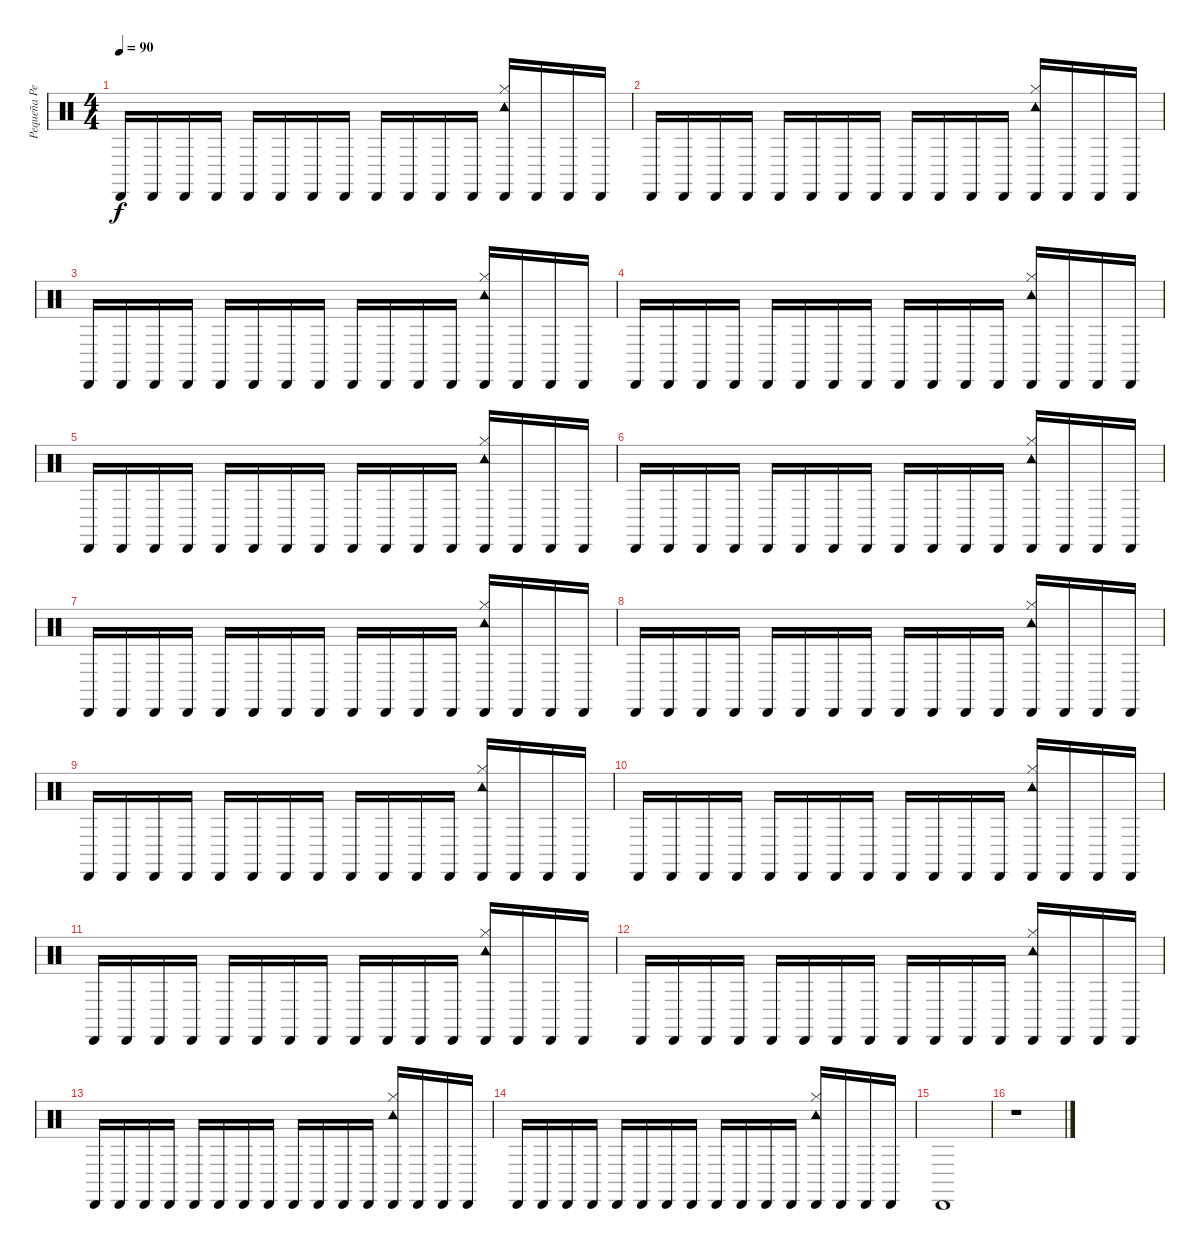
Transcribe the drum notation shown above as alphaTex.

\track ("Pequeña Percusión" "Pequeña Pe") {instrument percussion}
\staff {score}
\articulation defaults
\ts (4 4)
\tempo 90
\clef neutral
\ks c "Cabasa (hit)".16{dy f} "Cabasa (hit)".16 "Cabasa (hit)".16 "Cabasa (hit)".16 "Cabasa (hit)".16 "Cabasa (hit)".16 "Cabasa (hit)".16 "Cabasa (hit)".16 "Cabasa (hit)".16 "Cabasa (hit)".16 "Cabasa (hit)".16 "Cabasa (hit)".16
("Cabasa (hit)" "Tambourine (hit)" "Hi-Hat (closed)").16 "Cabasa (hit)".16 "Cabasa (hit)".16 "Cabasa (hit)".16 |
"Cabasa (hit)".16 "Cabasa (hit)".16 "Cabasa (hit)".16 "Cabasa (hit)".16 "Cabasa (hit)".16 "Cabasa (hit)".16 "Cabasa (hit)".16 "Cabasa (hit)".16 "Cabasa (hit)".16 "Cabasa (hit)".16 "Cabasa (hit)".16 "Cabasa (hit)".16 ("Cabasa (hit)" "Tambourine (hit)" "Hi-Hat (closed)").16 "Cabasa (hit)".16 "Cabasa (hit)".16 "Cabasa (hit)".16 |
"Cabasa (hit)".16 "Cabasa (hit)".16 "Cabasa (hit)".16 "Cabasa (hit)".16 "Cabasa (hit)".16 "Cabasa (hit)".16 "Cabasa (hit)".16 "Cabasa (hit)".16 "Cabasa (hit)".16 "Cabasa (hit)".16 "Cabasa (hit)".16 "Cabasa (hit)".16 ("Cabasa (hit)" "Tambourine (hit)" "Hi-Hat (closed)").16 "Cabasa (hit)".16 "Cabasa (hit)".16 "Cabasa (hit)".16 |
"Cabasa (hit)".16 "Cabasa (hit)".16 "Cabasa (hit)".16 "Cabasa (hit)".16 "Cabasa (hit)".16 "Cabasa (hit)".16 "Cabasa (hit)".16 "Cabasa (hit)".16 "Cabasa (hit)".16 "Cabasa (hit)".16 "Cabasa (hit)".16 "Cabasa (hit)".16 ("Cabasa (hit)" "Tambourine (hit)" "Hi-Hat (closed)").16 "Cabasa (hit)".16 "Cabasa (hit)".16 "Cabasa (hit)".16 |
"Cabasa (hit)".16 "Cabasa (hit)".16 "Cabasa (hit)".16 "Cabasa (hit)".16 "Cabasa (hit)".16 "Cabasa (hit)".16 "Cabasa (hit)".16 "Cabasa (hit)".16 "Cabasa (hit)".16 "Cabasa (hit)".16 "Cabasa (hit)".16 "Cabasa (hit)".16 ("Cabasa (hit)" "Tambourine (hit)" "Hi-Hat (closed)").16 "Cabasa (hit)".16 "Cabasa (hit)".16 "Cabasa (hit)".16 |
"Cabasa (hit)".16 "Cabasa (hit)".16 "Cabasa (hit)".16 "Cabasa (hit)".16 "Cabasa (hit)".16 "Cabasa (hit)".16 "Cabasa (hit)".16 "Cabasa (hit)".16 "Cabasa (hit)".16 "Cabasa (hit)".16 "Cabasa (hit)".16 "Cabasa (hit)".16 ("Cabasa (hit)" "Tambourine (hit)" "Hi-Hat (closed)").16 "Cabasa (hit)".16 "Cabasa (hit)".16 "Cabasa (hit)".16 |
"Cabasa (hit)".16 "Cabasa (hit)".16 "Cabasa (hit)".16 "Cabasa (hit)".16 "Cabasa (hit)".16 "Cabasa (hit)".16 "Cabasa (hit)".16 "Cabasa (hit)".16 "Cabasa (hit)".16 "Cabasa (hit)".16 "Cabasa (hit)".16 "Cabasa (hit)".16 ("Cabasa (hit)" "Tambourine (hit)" "Hi-Hat (closed)").16 "Cabasa (hit)".16 "Cabasa (hit)".16 "Cabasa (hit)".16 |
"Cabasa (hit)".16 "Cabasa (hit)".16 "Cabasa (hit)".16 "Cabasa (hit)".16 "Cabasa (hit)".16 "Cabasa (hit)".16 "Cabasa (hit)".16 "Cabasa (hit)".16 "Cabasa (hit)".16 "Cabasa (hit)".16 "Cabasa (hit)".16 "Cabasa (hit)".16 ("Cabasa (hit)" "Tambourine (hit)" "Hi-Hat (closed)").16 "Cabasa (hit)".16 "Cabasa (hit)".16 "Cabasa (hit)".16 |
"Cabasa (hit)".16 "Cabasa (hit)".16 "Cabasa (hit)".16 "Cabasa (hit)".16 "Cabasa (hit)".16 "Cabasa (hit)".16 "Cabasa (hit)".16 "Cabasa (hit)".16 "Cabasa (hit)".16 "Cabasa (hit)".16 "Cabasa (hit)".16 "Cabasa (hit)".16 ("Cabasa (hit)" "Tambourine (hit)" "Hi-Hat (closed)").16 "Cabasa (hit)".16 "Cabasa (hit)".16 "Cabasa (hit)".16 |
"Cabasa (hit)".16 "Cabasa (hit)".16 "Cabasa (hit)".16 "Cabasa (hit)".16 "Cabasa (hit)".16 "Cabasa (hit)".16 "Cabasa (hit)".16 "Cabasa (hit)".16 "Cabasa (hit)".16 "Cabasa (hit)".16 "Cabasa (hit)".16 "Cabasa (hit)".16 ("Cabasa (hit)" "Tambourine (hit)" "Hi-Hat (closed)").16 "Cabasa (hit)".16 "Cabasa (hit)".16 "Cabasa (hit)".16 |
"Cabasa (hit)".16 "Cabasa (hit)".16 "Cabasa (hit)".16 "Cabasa (hit)".16 "Cabasa (hit)".16 "Cabasa (hit)".16 "Cabasa (hit)".16 "Cabasa (hit)".16 "Cabasa (hit)".16 "Cabasa (hit)".16 "Cabasa (hit)".16 "Cabasa (hit)".16 ("Cabasa (hit)" "Tambourine (hit)" "Hi-Hat (closed)").16 "Cabasa (hit)".16 "Cabasa (hit)".16 "Cabasa (hit)".16 |
"Cabasa (hit)".16 "Cabasa (hit)".16 "Cabasa (hit)".16 "Cabasa (hit)".16 "Cabasa (hit)".16 "Cabasa (hit)".16 "Cabasa (hit)".16 "Cabasa (hit)".16 "Cabasa (hit)".16 "Cabasa (hit)".16 "Cabasa (hit)".16 "Cabasa (hit)".16 ("Cabasa (hit)" "Tambourine (hit)" "Hi-Hat (closed)").16 "Cabasa (hit)".16 "Cabasa (hit)".16 "Cabasa (hit)".16 |
"Cabasa (hit)".16 "Cabasa (hit)".16 "Cabasa (hit)".16 "Cabasa (hit)".16 "Cabasa (hit)".16 "Cabasa (hit)".16 "Cabasa (hit)".16 "Cabasa (hit)".16 "Cabasa (hit)".16 "Cabasa (hit)".16 "Cabasa (hit)".16 "Cabasa (hit)".16 ("Cabasa (hit)" "Tambourine (hit)" "Hi-Hat (closed)").16 "Cabasa (hit)".16 "Cabasa (hit)".16 "Cabasa (hit)".16 |
"Cabasa (hit)".16 "Cabasa (hit)".16 "Cabasa (hit)".16 "Cabasa (hit)".16 "Cabasa (hit)".16 "Cabasa (hit)".16 "Cabasa (hit)".16 "Cabasa (hit)".16 "Cabasa (hit)".16 "Cabasa (hit)".16 "Cabasa (hit)".16 "Cabasa (hit)".16 ("Cabasa (hit)" "Tambourine (hit)" "Hi-Hat (closed)").16 "Cabasa (hit)".16 "Cabasa (hit)".16 "Cabasa (hit)".16 |
"Cabasa (hit)".1 |
r.1
